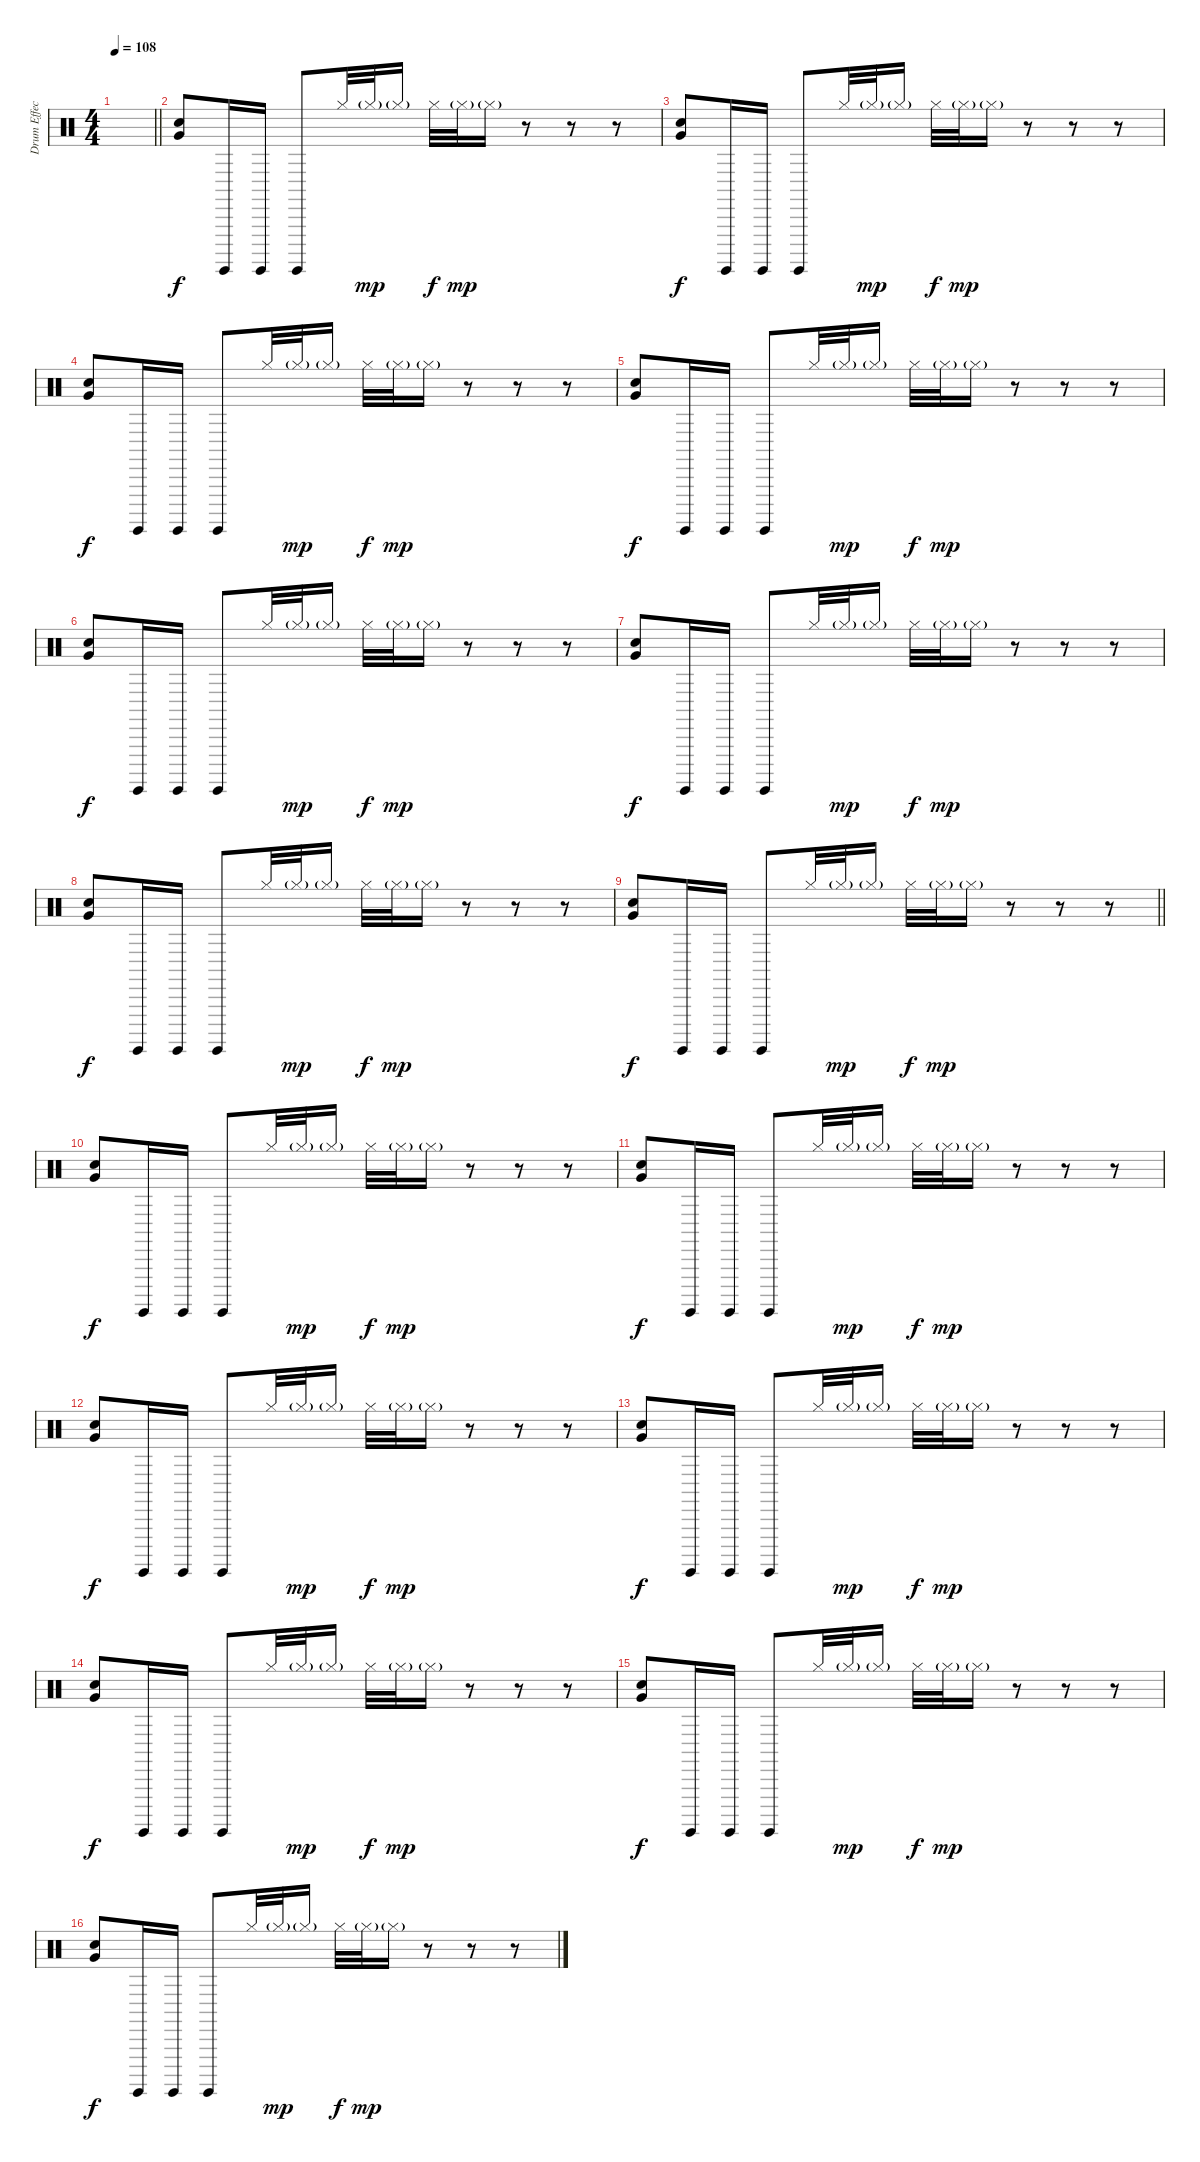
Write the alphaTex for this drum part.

\track ("Drum Effects" "Drum Effec") {instrument percussion}
\staff {score}
\articulation defaults
\ts (4 4)
\tempo 108
\clef neutral
\barLineRight lightlight
\ks c
|
\section ("" "")
("Hand Clap (hit)" "Very Low Tom (hit)").8 "Surdo (hit)".16 "Surdo (hit)".16 "Surdo (hit)".8 "Hi-Hat (closed)".32 "Hi-Hat (closed)"{g}.32{dy mp} "Hi-Hat (closed)"{g}.16 "Hi-Hat (closed)".32{dy f} "Hi-Hat (closed)"{g}.32{dy mp} "Hi-Hat (closed)"{g}.16 r.8 r.8 r.8 |
("Hand Clap (hit)" "Very Low Tom (hit)").8{dy f} "Surdo (hit)".16 "Surdo (hit)".16 "Surdo (hit)".8 "Hi-Hat (closed)".32 "Hi-Hat (closed)"{g}.32{dy mp} "Hi-Hat (closed)"{g}.16 "Hi-Hat (closed)".32{dy f} "Hi-Hat (closed)"{g}.32{dy mp} "Hi-Hat (closed)"{g}.16 r.8 r.8 r.8 |
("Hand Clap (hit)" "Very Low Tom (hit)").8{dy f} "Surdo (hit)".16 "Surdo (hit)".16 "Surdo (hit)".8 "Hi-Hat (closed)".32 "Hi-Hat (closed)"{g}.32{dy mp} "Hi-Hat (closed)"{g}.16 "Hi-Hat (closed)".32{dy f} "Hi-Hat (closed)"{g}.32{dy mp} "Hi-Hat (closed)"{g}.16 r.8 r.8 r.8 |
("Hand Clap (hit)" "Very Low Tom (hit)").8{dy f} "Surdo (hit)".16 "Surdo (hit)".16 "Surdo (hit)".8 "Hi-Hat (closed)".32 "Hi-Hat (closed)"{g}.32{dy mp} "Hi-Hat (closed)"{g}.16 "Hi-Hat (closed)".32{dy f} "Hi-Hat (closed)"{g}.32{dy mp} "Hi-Hat (closed)"{g}.16 r.8 r.8 r.8 |
("Hand Clap (hit)" "Very Low Tom (hit)").8{dy f} "Surdo (hit)".16 "Surdo (hit)".16 "Surdo (hit)".8 "Hi-Hat (closed)".32 "Hi-Hat (closed)"{g}.32{dy mp} "Hi-Hat (closed)"{g}.16 "Hi-Hat (closed)".32{dy f} "Hi-Hat (closed)"{g}.32{dy mp} "Hi-Hat (closed)"{g}.16 r.8 r.8 r.8 |
("Hand Clap (hit)" "Very Low Tom (hit)").8{dy f} "Surdo (hit)".16 "Surdo (hit)".16 "Surdo (hit)".8 "Hi-Hat (closed)".32 "Hi-Hat (closed)"{g}.32{dy mp} "Hi-Hat (closed)"{g}.16 "Hi-Hat (closed)".32{dy f} "Hi-Hat (closed)"{g}.32{dy mp} "Hi-Hat (closed)"{g}.16 r.8 r.8 r.8 |
("Hand Clap (hit)" "Very Low Tom (hit)").8{dy f} "Surdo (hit)".16 "Surdo (hit)".16 "Surdo (hit)".8 "Hi-Hat (closed)".32 "Hi-Hat (closed)"{g}.32{dy mp} "Hi-Hat (closed)"{g}.16 "Hi-Hat (closed)".32{dy f} "Hi-Hat (closed)"{g}.32{dy mp} "Hi-Hat (closed)"{g}.16 r.8 r.8 r.8 |
\barLineRight lightlight
("Hand Clap (hit)" "Very Low Tom (hit)").8{dy f} "Surdo (hit)".16 "Surdo (hit)".16 "Surdo (hit)".8 "Hi-Hat (closed)".32 "Hi-Hat (closed)"{g}.32{dy mp} "Hi-Hat (closed)"{g}.16 "Hi-Hat (closed)".32{dy f} "Hi-Hat (closed)"{g}.32{dy mp} "Hi-Hat (closed)"{g}.16 r.8 r.8 r.8 |
\section ("" "")
("Hand Clap (hit)" "Very Low Tom (hit)").8{dy f} "Surdo (hit)".16 "Surdo (hit)".16 "Surdo (hit)".8 "Hi-Hat (closed)".32 "Hi-Hat (closed)"{g}.32{dy mp} "Hi-Hat (closed)"{g}.16 "Hi-Hat (closed)".32{dy f} "Hi-Hat (closed)"{g}.32{dy mp} "Hi-Hat (closed)"{g}.16 r.8 r.8 r.8 |
("Hand Clap (hit)" "Very Low Tom (hit)").8{dy f} "Surdo (hit)".16 "Surdo (hit)".16 "Surdo (hit)".8 "Hi-Hat (closed)".32 "Hi-Hat (closed)"{g}.32{dy mp} "Hi-Hat (closed)"{g}.16 "Hi-Hat (closed)".32{dy f} "Hi-Hat (closed)"{g}.32{dy mp} "Hi-Hat (closed)"{g}.16 r.8 r.8 r.8 |
("Hand Clap (hit)" "Very Low Tom (hit)").8{dy f} "Surdo (hit)".16 "Surdo (hit)".16 "Surdo (hit)".8 "Hi-Hat (closed)".32 "Hi-Hat (closed)"{g}.32{dy mp} "Hi-Hat (closed)"{g}.16 "Hi-Hat (closed)".32{dy f} "Hi-Hat (closed)"{g}.32{dy mp} "Hi-Hat (closed)"{g}.16 r.8 r.8 r.8 |
("Hand Clap (hit)" "Very Low Tom (hit)").8{dy f} "Surdo (hit)".16 "Surdo (hit)".16 "Surdo (hit)".8 "Hi-Hat (closed)".32 "Hi-Hat (closed)"{g}.32{dy mp} "Hi-Hat (closed)"{g}.16 "Hi-Hat (closed)".32{dy f} "Hi-Hat (closed)"{g}.32{dy mp} "Hi-Hat (closed)"{g}.16 r.8 r.8 r.8 |
("Hand Clap (hit)" "Very Low Tom (hit)").8{dy f} "Surdo (hit)".16 "Surdo (hit)".16 "Surdo (hit)".8 "Hi-Hat (closed)".32 "Hi-Hat (closed)"{g}.32{dy mp} "Hi-Hat (closed)"{g}.16 "Hi-Hat (closed)".32{dy f} "Hi-Hat (closed)"{g}.32{dy mp} "Hi-Hat (closed)"{g}.16 r.8 r.8 r.8 |
("Hand Clap (hit)" "Very Low Tom (hit)").8{dy f} "Surdo (hit)".16 "Surdo (hit)".16 "Surdo (hit)".8 "Hi-Hat (closed)".32 "Hi-Hat (closed)"{g}.32{dy mp} "Hi-Hat (closed)"{g}.16 "Hi-Hat (closed)".32{dy f} "Hi-Hat (closed)"{g}.32{dy mp} "Hi-Hat (closed)"{g}.16 r.8 r.8 r.8 |
("Hand Clap (hit)" "Very Low Tom (hit)").8{dy f} "Surdo (hit)".16 "Surdo (hit)".16 "Surdo (hit)".8 "Hi-Hat (closed)".32 "Hi-Hat (closed)"{g}.32{dy mp} "Hi-Hat (closed)"{g}.16 "Hi-Hat (closed)".32{dy f} "Hi-Hat (closed)"{g}.32{dy mp} "Hi-Hat (closed)"{g}.16 r.8 r.8 r.8
